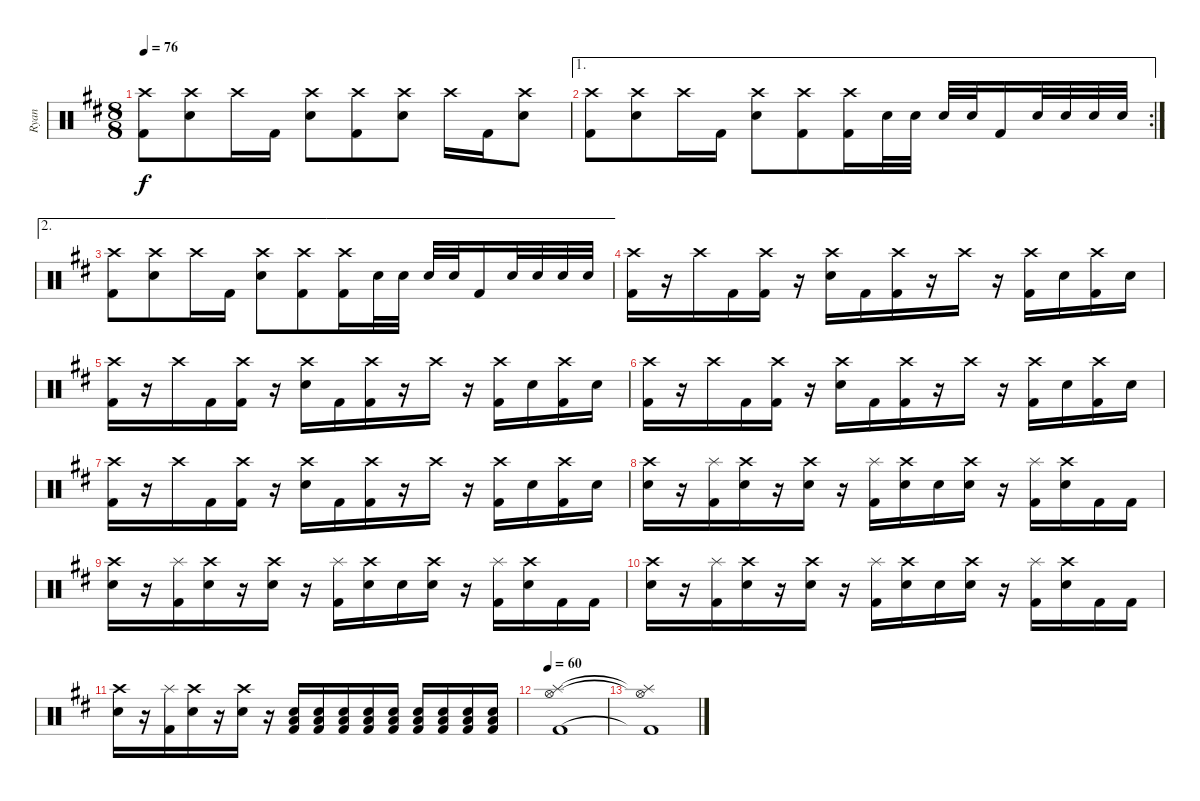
\track ("Ryan" "Ryan") {instrument percussion}
\staff {score}
\articulation defaults
\ts (8 8)
\tempo 76
\clef neutral
\ks d
("Crash high (hit)" "Kick (hit) 2").8{dy f} ("Crash high (hit)" "Snare (hit) 2").8 "Crash high (hit)".16 "Kick (hit) 2".16 ("Crash high (hit)" "Snare (hit) 2").8 ("Crash high (hit)" "Kick (hit) 2").8 ("Crash high (hit)" "Snare (hit) 2").8 "Crash high (hit)".16 "Kick (hit) 2".16 ("Crash high (hit)" "Snare (hit) 2").8 |
\ae 1
\rc 2
("Crash high (hit)" "Kick (hit) 2").8 ("Crash high (hit)" "Snare (hit) 2").8 "Crash high (hit)".16 "Kick (hit) 2".16 ("Crash high (hit)" "Snare (hit) 2").8 ("Crash high (hit)" "Kick (hit) 2").8 ("Crash high (hit)" "Kick (hit) 2").16 "Snare (hit) 2".32 "Snare (hit) 2".32 "Snare (hit) 2".32 "Snare (hit) 2".32 "Kick (hit) 2".16 "Snare (hit) 2".32 "Snare (hit) 2".32 "Snare (hit) 2".32 "Snare (hit) 2".32 |
\ae 2
("Crash high (hit)" "Kick (hit) 2").8 ("Crash high (hit)" "Snare (hit) 2").8 "Crash high (hit)".16 "Kick (hit) 2".16 ("Crash high (hit)" "Snare (hit) 2").8 ("Crash high (hit)" "Kick (hit) 2").8 ("Crash high (hit)" "Kick (hit) 2").16 "Snare (hit) 2".32 "Snare (hit) 2".32 "Snare (hit) 2".32 "Snare (hit) 2".32 "Kick (hit) 2".16 "Snare (hit) 2".32 "Snare (hit) 2".32 "Snare (hit) 2".32 "Snare (hit) 2".32 |
("Crash high (hit)" "Kick (hit) 2").16 r.16 "Crash high (hit)".16 "Kick (hit) 2".16 ("Crash high (hit)" "Kick (hit) 2").16 r.16 ("Crash high (hit)" "Snare (hit) 2").16 "Kick (hit) 2".16 ("Crash high (hit)" "Kick (hit) 2").16 r.16 "Crash high (hit)".16 r.16 ("Crash high (hit)" "Kick (hit) 2").16 "Snare (hit) 2".16 ("Crash high (hit)" "Kick (hit) 2").16 "Snare (hit) 2".16 |
("Crash high (hit)" "Kick (hit) 2").16 r.16 "Crash high (hit)".16 "Kick (hit) 2".16 ("Crash high (hit)" "Kick (hit) 2").16 r.16 ("Crash high (hit)" "Snare (hit) 2").16 "Kick (hit) 2".16 ("Crash high (hit)" "Kick (hit) 2").16 r.16 "Crash high (hit)".16 r.16 ("Crash high (hit)" "Kick (hit) 2").16 "Snare (hit) 2".16 ("Crash high (hit)" "Kick (hit) 2").16 "Snare (hit) 2".16 |
("Crash high (hit)" "Kick (hit) 2").16 r.16 "Crash high (hit)".16 "Kick (hit) 2".16 ("Crash high (hit)" "Kick (hit) 2").16 r.16 ("Crash high (hit)" "Snare (hit) 2").16 "Kick (hit) 2".16 ("Crash high (hit)" "Kick (hit) 2").16 r.16 "Crash high (hit)".16 r.16 ("Crash high (hit)" "Kick (hit) 2").16 "Snare (hit) 2".16 ("Crash high (hit)" "Kick (hit) 2").16 "Snare (hit) 2".16 |
("Crash high (hit)" "Kick (hit) 2").16 r.16 "Crash high (hit)".16 "Kick (hit) 2".16 ("Crash high (hit)" "Kick (hit) 2").16 r.16 ("Crash high (hit)" "Snare (hit) 2").16 "Kick (hit) 2".16 ("Crash high (hit)" "Kick (hit) 2").16 r.16 "Crash high (hit)".16 r.16 ("Crash high (hit)" "Kick (hit) 2").16 "Snare (hit) 2".16 ("Crash high (hit)" "Kick (hit) 2").16 "Snare (hit) 2".16 |
("Crash high (hit)" "Snare (hit) 2").16 r.16 ("Splash (hit)" "Kick (hit) 2").16 ("Crash high (hit)" "Snare (hit) 2").16 r.16 ("Crash high (hit)" "Snare (hit) 2").16 r.16 ("Splash (hit)" "Kick (hit) 2").16 ("Crash high (hit)" "Snare (hit) 2").16 "Snare (hit) 2".16 ("Crash high (hit)" "Snare (hit) 2").16 r.16 ("Splash (hit)" "Kick (hit) 2").16 ("Crash high (hit)" "Snare (hit) 2").16 "Kick (hit) 2".16 "Kick (hit) 2".16 |
("Crash high (hit)" "Snare (hit) 2").16 r.16 ("Splash (hit)" "Kick (hit) 2").16 ("Crash high (hit)" "Snare (hit) 2").16 r.16 ("Crash high (hit)" "Snare (hit) 2").16 r.16 ("Splash (hit)" "Kick (hit) 2").16 ("Crash high (hit)" "Snare (hit) 2").16 "Snare (hit) 2".16 ("Crash high (hit)" "Snare (hit) 2").16 r.16 ("Splash (hit)" "Kick (hit) 2").16 ("Crash high (hit)" "Snare (hit) 2").16 "Kick (hit) 2".16 "Kick (hit) 2".16 |
("Crash high (hit)" "Snare (hit) 2").16 r.16 ("Splash (hit)" "Kick (hit) 2").16 ("Crash high (hit)" "Snare (hit) 2").16 r.16 ("Crash high (hit)" "Snare (hit) 2").16 r.16 ("Splash (hit)" "Kick (hit) 2").16 ("Crash high (hit)" "Snare (hit) 2").16 "Snare (hit) 2".16 ("Crash high (hit)" "Snare (hit) 2").16 r.16 ("Splash (hit)" "Kick (hit) 2").16 ("Crash high (hit)" "Snare (hit) 2").16 "Kick (hit) 2".16 "Kick (hit) 2".16 |
("Crash high (hit)" "Snare (hit) 2").16 r.16 ("Splash (hit)" "Kick (hit) 2").16 ("Crash high (hit)" "Snare (hit) 2").16 r.16 ("Crash high (hit)" "Snare (hit) 2").16 r.16 ("Low Tom (hit)" "Snare (hit) 2" "Kick (hit) 2").16 ("Low Tom (hit)" "Snare (hit) 2" "Kick (hit) 2").16 ("Low Tom (hit)" "Snare (hit) 2" "Kick (hit) 2").16 ("Low Tom (hit)" "Snare (hit) 2" "Kick (hit) 2").16 ("Low Tom (hit)" "Snare (hit) 2" "Kick (hit) 2").16 ("Low Tom (hit)" "Snare (hit) 2" "Kick (hit) 2").16 ("Low Tom (hit)" "Snare (hit) 2" "Kick (hit) 2").16 ("Low Tom (hit)" "Snare (hit) 2" "Kick (hit) 2").16 ("Low Tom (hit)" "Snare (hit) 2" "Kick (hit) 2").16 |
\tempo 60
("Splash (hit)" "Hi-Hat (open)" "Kick (hit) 2").1 |
("Splash (hit)"{t} "Hi-Hat (open)"{t} "Kick (hit) 2"{t}).1
